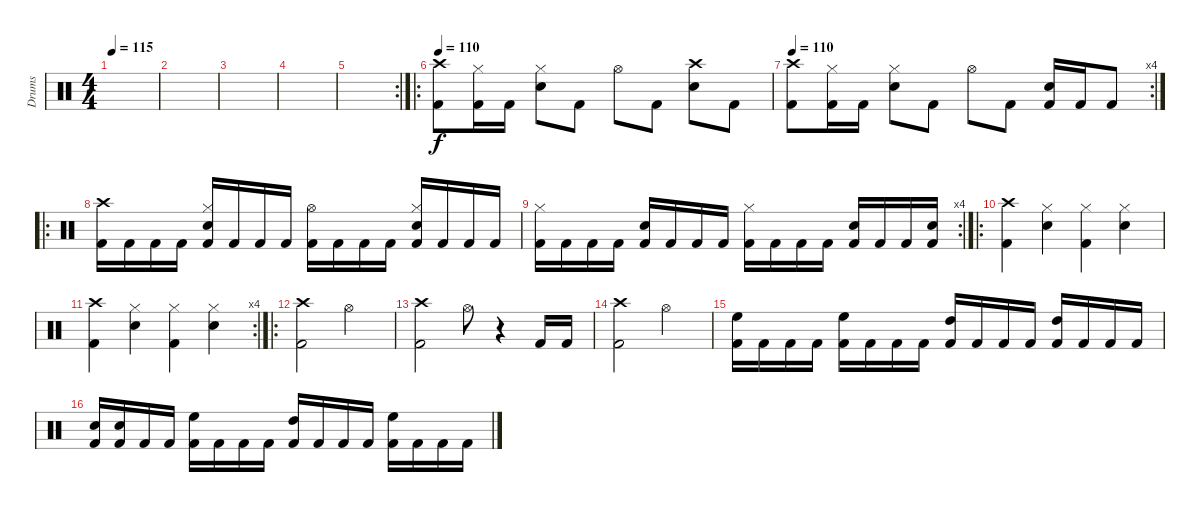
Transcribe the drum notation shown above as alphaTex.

\track ("Drums" "Drums") {instrument percussion}
\staff {score}
\articulation defaults
\ts (4 4)
\tempo 115
\clef neutral
\ks c
|
|
|
|
\rc 2
|
\ro
\tempo 110
("Crash high (hit)" "Kick (hit) 2").8 ("Hi-Hat (closed)" "Kick (hit) 2").16 "Kick (hit) 2".16 ("Hi-Hat (closed)" "Snare (hit) 2").8 "Kick (hit) 2".8 "Hi-Hat (open)".8 "Kick (hit) 2".8 ("Crash high (hit)" "Snare (hit) 2").8 "Kick (hit) 2".8 |
\rc 4
\tempo 110
("Crash high (hit)" "Kick (hit) 2").8 ("Hi-Hat (closed)" "Kick (hit) 2").16 "Kick (hit) 2".16 ("Hi-Hat (closed)" "Snare (hit) 2").8 "Kick (hit) 2".8 "Hi-Hat (open)".8 "Kick (hit) 2".8 ("Snare (hit) 2" "Kick (hit) 2").16 "Kick (hit) 2".16 "Kick (hit) 2".8 |
\ro
("Crash high (hit)" "Kick (hit) 2").16 "Kick (hit) 2".16 "Kick (hit) 2".16 "Kick (hit) 2".16 ("Hi-Hat (closed)" "Snare (hit) 2" "Kick (hit) 2").16 "Kick (hit) 2".16 "Kick (hit) 2".16 "Kick (hit) 2".16 ("Hi-Hat (open)" "Kick (hit) 2").16 "Kick (hit) 2".16 "Kick (hit) 2".16 "Kick (hit) 2".16 ("Hi-Hat (closed)" "Snare (hit) 2" "Kick (hit) 2").16 "Kick (hit) 2".16 "Kick (hit) 2".16 "Kick (hit) 2".16 |
\rc 4
("Hi-Hat (closed)" "Kick (hit) 2").16 "Kick (hit) 2".16 "Kick (hit) 2".16 "Kick (hit) 2".16 ("Snare (hit) 2" "Kick (hit) 2").16 "Kick (hit) 2".16 "Kick (hit) 2".16 "Kick (hit) 2".16 ("Hi-Hat (closed)" "Kick (hit) 2").16 "Kick (hit) 2".16 "Kick (hit) 2".16 "Kick (hit) 2".16 ("Snare (hit) 2" "Kick (hit) 2").16 "Kick (hit) 2".16 "Kick (hit) 2".16 ("Snare (hit) 2" "Kick (hit) 2").16 |
\ro
("Crash high (hit)" "Kick (hit) 2").4 ("Hi-Hat (closed)" "Snare (hit) 2").4 ("Hi-Hat (closed)" "Kick (hit) 2").4 ("Hi-Hat (closed)" "Snare (hit) 2").4 |
\rc 4
("Crash high (hit)" "Kick (hit) 2").4 ("Hi-Hat (closed)" "Snare (hit) 2").4 ("Hi-Hat (closed)" "Kick (hit) 2").4 ("Hi-Hat (closed)" "Snare (hit) 2").4 |
\ro
("Crash high (hit)" "Kick (hit) 2").2 "Hi-Hat (open)".2 |
("Crash high (hit)" "Kick (hit) 2").2 "Hi-Hat (open)".8 r.4 "Kick (hit) 2".16 "Kick (hit) 2".16 |
("Crash high (hit)" "Kick (hit) 2").2 "Hi-Hat (open)".2 |
("High Floor Tom (hit)" "Kick (hit) 2").16 "Kick (hit) 2".16 "Kick (hit) 2".16 "Kick (hit) 2".16 ("High Floor Tom (hit)" "Kick (hit) 2").16 "Kick (hit) 2".16 "Kick (hit) 2".16 "Kick (hit) 2".16 ("High Tom (hit)" "Kick (hit) 2").16 "Kick (hit) 2".16 "Kick (hit) 2".16 "Kick (hit) 2".16 ("High Tom (hit)" "Kick (hit) 2").16 "Kick (hit) 2".16 "Kick (hit) 2".16 "Kick (hit) 2".16 |
("Snare (hit) 2" "Kick (hit) 2").16 ("Snare (hit) 2" "Kick (hit) 2").16 "Kick (hit) 2".16 "Kick (hit) 2".16 ("High Floor Tom (hit)" "Kick (hit) 2").16 "Kick (hit) 2".16 "Kick (hit) 2".16 "Kick (hit) 2".16 ("High Tom (hit)" "Kick (hit) 2").16 "Kick (hit) 2".16 "Kick (hit) 2".16 "Kick (hit) 2".16 ("High Floor Tom (hit)" "Kick (hit) 2").16 "Kick (hit) 2".16 "Kick (hit) 2".16 "Kick (hit) 2".16
